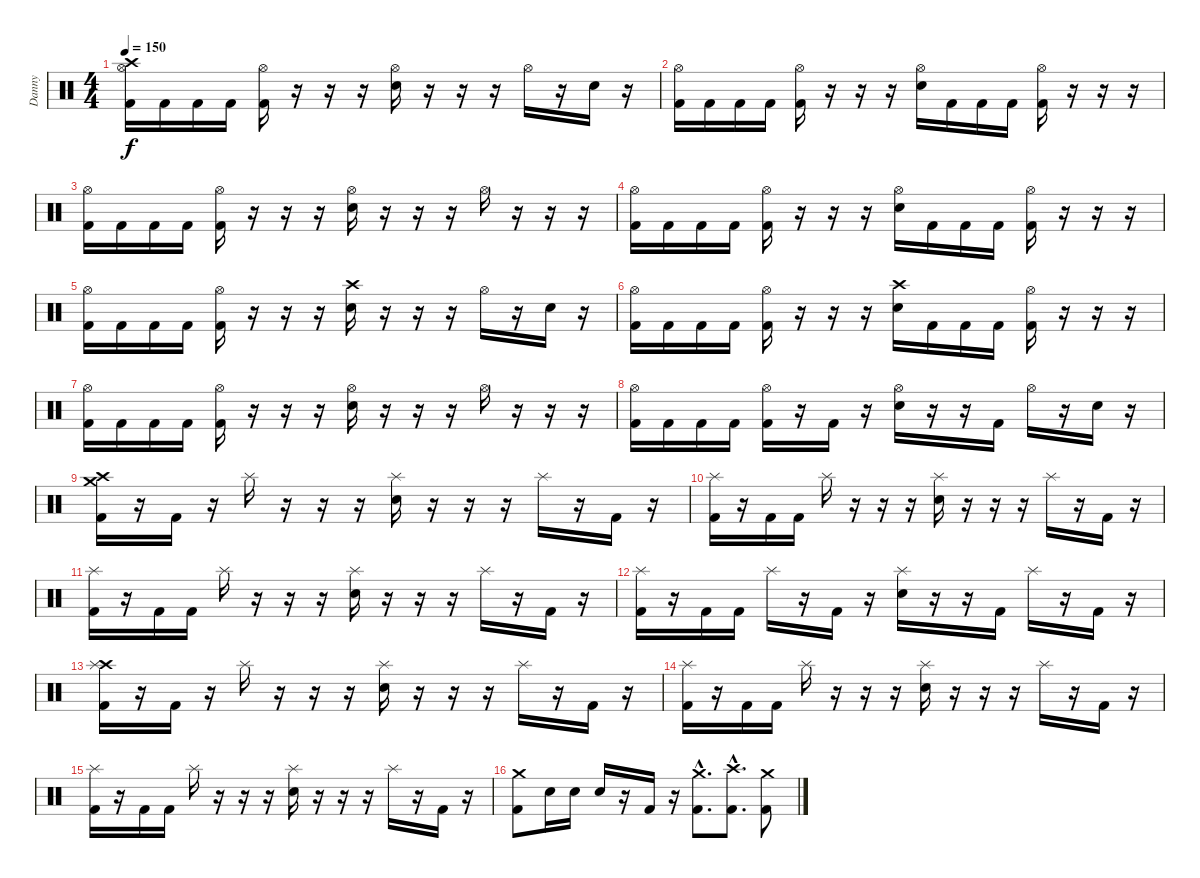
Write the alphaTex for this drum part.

\track ("Danny" "Danny") {instrument percussion}
\staff {score}
\articulation defaults
\ts (4 4)
\tempo 150
\clef neutral
\ks c
("Crash high (hit)" "Hi-Hat (open)" "Kick (hit) 2").16{dy f} "Kick (hit) 2".16 "Kick (hit) 2".16 "Kick (hit) 2".16 ("Hi-Hat (open)" "Kick (hit) 2").16 r.16 r.16 r.16 ("Hi-Hat (open)" "Snare (hit) 2").16 r.16 r.16 r.16 "Hi-Hat (open)".16 r.16 "Snare (hit) 2".16 r.16 |
("Hi-Hat (open)" "Kick (hit) 2").16 "Kick (hit) 2".16 "Kick (hit) 2".16 "Kick (hit) 2".16 ("Hi-Hat (open)" "Kick (hit) 2").16 r.16 r.16 r.16 ("Hi-Hat (open)" "Snare (hit) 2").16 "Kick (hit) 2".16 "Kick (hit) 2".16 "Kick (hit) 2".16 ("Hi-Hat (open)" "Kick (hit) 2").16 r.16 r.16 r.16 |
("Hi-Hat (open)" "Kick (hit) 2").16 "Kick (hit) 2".16 "Kick (hit) 2".16 "Kick (hit) 2".16 ("Hi-Hat (open)" "Kick (hit) 2").16 r.16 r.16 r.16 ("Hi-Hat (open)" "Snare (hit) 2").16 r.16 r.16 r.16 "Hi-Hat (open)".16 r.16 r.16 r.16 |
("Hi-Hat (open)" "Kick (hit) 2").16 "Kick (hit) 2".16 "Kick (hit) 2".16 "Kick (hit) 2".16 ("Hi-Hat (open)" "Kick (hit) 2").16 r.16 r.16 r.16 ("Hi-Hat (open)" "Snare (hit) 2").16 "Kick (hit) 2".16 "Kick (hit) 2".16 "Kick (hit) 2".16 ("Hi-Hat (open)" "Kick (hit) 2").16 r.16 r.16 r.16 |
("Hi-Hat (open)" "Kick (hit) 2").16 "Kick (hit) 2".16 "Kick (hit) 2".16 "Kick (hit) 2".16 ("Hi-Hat (open)" "Kick (hit) 2").16 r.16 r.16 r.16 ("Crash high (hit)" "Snare (hit) 2").16 r.16 r.16 r.16 "Hi-Hat (open)".16 r.16 "Snare (hit) 2".16 r.16 |
("Hi-Hat (open)" "Kick (hit) 2").16 "Kick (hit) 2".16 "Kick (hit) 2".16 "Kick (hit) 2".16 ("Hi-Hat (open)" "Kick (hit) 2").16 r.16 r.16 r.16 ("Crash high (hit)" "Snare (hit) 2").16 "Kick (hit) 2".16 "Kick (hit) 2".16 "Kick (hit) 2".16 ("Hi-Hat (open)" "Kick (hit) 2").16 r.16 r.16 r.16 |
("Hi-Hat (open)" "Kick (hit) 2").16 "Kick (hit) 2".16 "Kick (hit) 2".16 "Kick (hit) 2".16 ("Hi-Hat (open)" "Kick (hit) 2").16 r.16 r.16 r.16 ("Hi-Hat (open)" "Snare (hit) 2").16 r.16 r.16 r.16 "Hi-Hat (open)".16 r.16 r.16 r.16 |
("Hi-Hat (open)" "Kick (hit) 2").16 "Kick (hit) 2".16 "Kick (hit) 2".16 "Kick (hit) 2".16 ("Hi-Hat (open)" "Kick (hit) 2").16 r.16 "Kick (hit) 2".16 r.16 ("Hi-Hat (open)" "Snare (hit) 2").16 r.16 r.16 "Kick (hit) 2".16 "Hi-Hat (open)".16 r.16 "Snare (hit) 2".16 r.16 |
("Crash high (hit)" "Crash medium (hit)" "Kick (hit) 2").16 r.16 "Kick (hit) 2".16 r.16 "Splash (hit)".16 r.16 r.16 r.16 ("Splash (hit)" "Snare (hit) 2").16 r.16 r.16 r.16 "Splash (hit)".16 r.16 "Kick (hit) 2".16 r.16 |
("Splash (hit)" "Kick (hit) 2").16 r.16 "Kick (hit) 2".16 "Kick (hit) 2".16 "Splash (hit)".16 r.16 r.16 r.16 ("Splash (hit)" "Snare (hit) 2").16 r.16 r.16 r.16 "Splash (hit)".16 r.16 "Kick (hit) 2".16 r.16 |
("Splash (hit)" "Kick (hit) 2").16 r.16 "Kick (hit) 2".16 "Kick (hit) 2".16 "Splash (hit)".16 r.16 r.16 r.16 ("Splash (hit)" "Snare (hit) 2").16 r.16 r.16 r.16 "Splash (hit)".16 r.16 "Kick (hit) 2".16 r.16 |
("Splash (hit)" "Kick (hit) 2").16 r.16 "Kick (hit) 2".16 "Kick (hit) 2".16 "Splash (hit)".16 r.16 "Kick (hit) 2".16 r.16 ("Splash (hit)" "Snare (hit) 2").16 r.16 r.16 "Kick (hit) 2".16 "Splash (hit)".16 r.16 "Kick (hit) 2".16 r.16 |
("Crash high (hit)" "Splash (hit)" "Kick (hit) 2").16 r.16 "Kick (hit) 2".16 r.16 "Splash (hit)".16 r.16 r.16 r.16 ("Splash (hit)" "Snare (hit) 2").16 r.16 r.16 r.16 "Splash (hit)".16 r.16 "Kick (hit) 2".16 r.16 |
("Splash (hit)" "Kick (hit) 2").16 r.16 "Kick (hit) 2".16 "Kick (hit) 2".16 "Splash (hit)".16 r.16 r.16 r.16 ("Splash (hit)" "Snare (hit) 2").16 r.16 r.16 r.16 "Splash (hit)".16 r.16 "Kick (hit) 2".16 r.16 |
("Splash (hit)" "Kick (hit) 2").16 r.16 "Kick (hit) 2".16 "Kick (hit) 2".16 "Splash (hit)".16 r.16 r.16 r.16 ("Splash (hit)" "Snare (hit) 2").16 r.16 r.16 r.16 "Splash (hit)".16 r.16 "Kick (hit) 2".16 r.16 |
("Crash medium (hit)" "Kick (hit) 2").8 "Snare (hit) 2".16 "Snare (hit) 2".16 "Snare (hit) 2".16 r.16 "Kick (hit) 2".16 r.16 ("Crash medium (hit)"{hac} "Kick (hit) 2"{hac}).8{d} ("Crash high (hit)"{hac} "Kick (hit) 2"{hac}).8{d} ("Crash medium (hit)" "Kick (hit) 2").8
